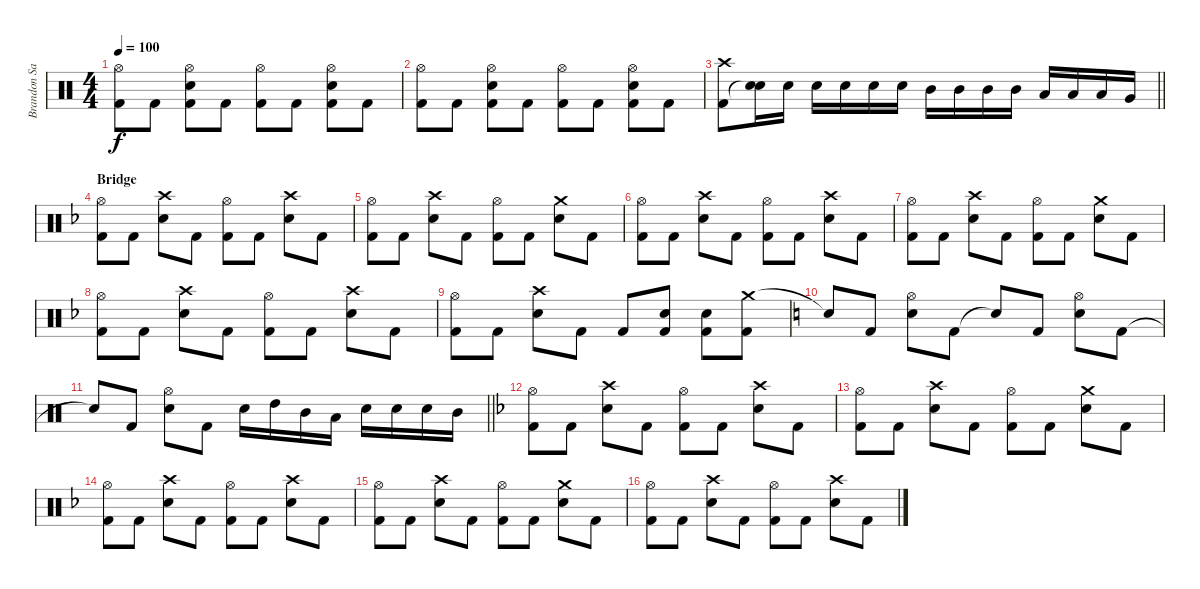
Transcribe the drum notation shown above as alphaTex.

\track ("Brandon Saller" "Brandon Sa") {instrument percussion}
\staff {score}
\articulation defaults
\ts (4 4)
\tempo 100
\clef neutral
\ks c
("Hi-Hat (open)" "Kick (hit) 2").8{dy f} "Kick (hit) 2".8 ("Hi-Hat (open)" "Electric Snare (hit)" "Kick (hit) 2").8 "Kick (hit) 2".8 ("Hi-Hat (open)" "Kick (hit) 2").8 "Kick (hit) 2".8 ("Hi-Hat (open)" "Electric Snare (hit)" "Kick (hit) 2").8 "Kick (hit) 2".8 |
("Hi-Hat (open)" "Kick (hit) 2").8 "Kick (hit) 2".8 ("Hi-Hat (open)" "Electric Snare (hit)" "Kick (hit) 2").8 "Kick (hit) 2".8 ("Hi-Hat (open)" "Kick (hit) 2").8 "Kick (hit) 2".8 ("Hi-Hat (open)" "Electric Snare (hit)" "Kick (hit) 2").8 "Kick (hit) 2".8 |
\barLineRight lightlight
("Crash high (hit)" "Kick (hit) 2").8 ("Electric Snare (hit)" "Snare (hit)"{t}).16 "Electric Snare (hit)".16 "Electric Snare (hit)".16 "Electric Snare (hit)".16 "Electric Snare (hit)".16 "Electric Snare (hit)".16 "Mid Tom (hit)".16 "Mid Tom (hit)".16 "Mid Tom (hit)".16 "Mid Tom (hit)".16 "Low Tom (hit)".16 "Low Tom (hit)".16 "Low Tom (hit)".16 "Very Low Tom (hit)".16 |
\section ("" "Bridge")
\ks f
("Hi-Hat (open)" "Kick (hit) 2").8 "Kick (hit) 2".8 ("Crash high (hit)" "Electric Snare (hit)").8 "Kick (hit) 2".8 ("Hi-Hat (open)" "Kick (hit) 2").8 "Kick (hit) 2".8 ("Crash high (hit)" "Electric Snare (hit)").8 "Kick (hit) 2".8 |
("Hi-Hat (open)" "Kick (hit) 2").8 "Kick (hit) 2".8 ("Crash high (hit)" "Electric Snare (hit)").8 "Kick (hit) 2".8 ("Hi-Hat (open)" "Kick (hit) 2").8 "Kick (hit) 2".8 ("Crash medium (hit)" "Electric Snare (hit)").8 "Kick (hit) 2".8 |
("Hi-Hat (open)" "Kick (hit) 2").8 "Kick (hit) 2".8 ("Crash high (hit)" "Electric Snare (hit)").8 "Kick (hit) 2".8 ("Hi-Hat (open)" "Kick (hit) 2").8 "Kick (hit) 2".8 ("Crash high (hit)" "Electric Snare (hit)").8 "Kick (hit) 2".8 |
("Hi-Hat (open)" "Kick (hit) 2").8 "Kick (hit) 2".8 ("Crash high (hit)" "Electric Snare (hit)").8 "Kick (hit) 2".8 ("Hi-Hat (open)" "Kick (hit) 2").8 "Kick (hit) 2".8 ("Crash medium (hit)" "Electric Snare (hit)").8 "Kick (hit) 2".8 |
("Hi-Hat (open)" "Kick (hit) 2").8 "Kick (hit) 2".8 ("Crash high (hit)" "Electric Snare (hit)").8 "Kick (hit) 2".8 ("Hi-Hat (open)" "Kick (hit) 2").8 "Kick (hit) 2".8 ("Crash high (hit)" "Electric Snare (hit)").8 "Kick (hit) 2".8 |
("Hi-Hat (open)" "Kick (hit) 2").8 "Kick (hit) 2".8 ("Crash high (hit)" "Electric Snare (hit)").8 "Kick (hit) 2".8 "Kick (hit) 2".8 ("Snare (hit) 2" "Kick (hit) 2").8 ("Snare (hit) 2" "Kick (hit) 2").8 ("Crash medium (hit)" "Kick (hit) 2").8 |
\ks c "Snare (hit)"{t}.8 "Kick (hit) 2".8
("Hi-Hat (open)" "Electric Snare (hit)").8 "Kick (hit) 2".8 "Snare (hit)"{t}.8 "Kick (hit) 2".8 ("Hi-Hat (open)" "Electric Snare (hit)").8 "Kick (hit) 2".8 |
\barLineRight lightlight "Snare (hit)"{t}.8 "Kick (hit) 2".8
("Hi-Hat (open)" "Electric Snare (hit)").8 "Kick (hit) 2".8 "Electric Snare (hit)".16 "High Tom (hit)".16 "Mid Tom (hit)".16 "Low Tom (hit)".16 "Snare (hit) 2".16 "Electric Snare (hit)".16 "Electric Snare (hit)".16 "Mid Tom (hit)".16 |
\ks f
("Hi-Hat (open)" "Kick (hit) 2").8 "Kick (hit) 2".8 ("Crash high (hit)" "Electric Snare (hit)").8 "Kick (hit) 2".8 ("Hi-Hat (open)" "Kick (hit) 2").8 "Kick (hit) 2".8 ("Crash high (hit)" "Electric Snare (hit)").8 "Kick (hit) 2".8 |
("Hi-Hat (open)" "Kick (hit) 2").8 "Kick (hit) 2".8 ("Crash high (hit)" "Electric Snare (hit)").8 "Kick (hit) 2".8 ("Hi-Hat (open)" "Kick (hit) 2").8 "Kick (hit) 2".8 ("Crash medium (hit)" "Electric Snare (hit)").8 "Kick (hit) 2".8 |
("Hi-Hat (open)" "Kick (hit) 2").8 "Kick (hit) 2".8 ("Crash high (hit)" "Electric Snare (hit)").8 "Kick (hit) 2".8 ("Hi-Hat (open)" "Kick (hit) 2").8 "Kick (hit) 2".8 ("Crash high (hit)" "Electric Snare (hit)").8 "Kick (hit) 2".8 |
("Hi-Hat (open)" "Kick (hit) 2").8 "Kick (hit) 2".8 ("Crash high (hit)" "Electric Snare (hit)").8 "Kick (hit) 2".8 ("Hi-Hat (open)" "Kick (hit) 2").8 "Kick (hit) 2".8 ("Crash medium (hit)" "Electric Snare (hit)").8 "Kick (hit) 2".8 |
("Hi-Hat (open)" "Kick (hit) 2").8 "Kick (hit) 2".8 ("Crash high (hit)" "Electric Snare (hit)").8 "Kick (hit) 2".8 ("Hi-Hat (open)" "Kick (hit) 2").8 "Kick (hit) 2".8 ("Crash high (hit)" "Electric Snare (hit)").8 "Kick (hit) 2".8
